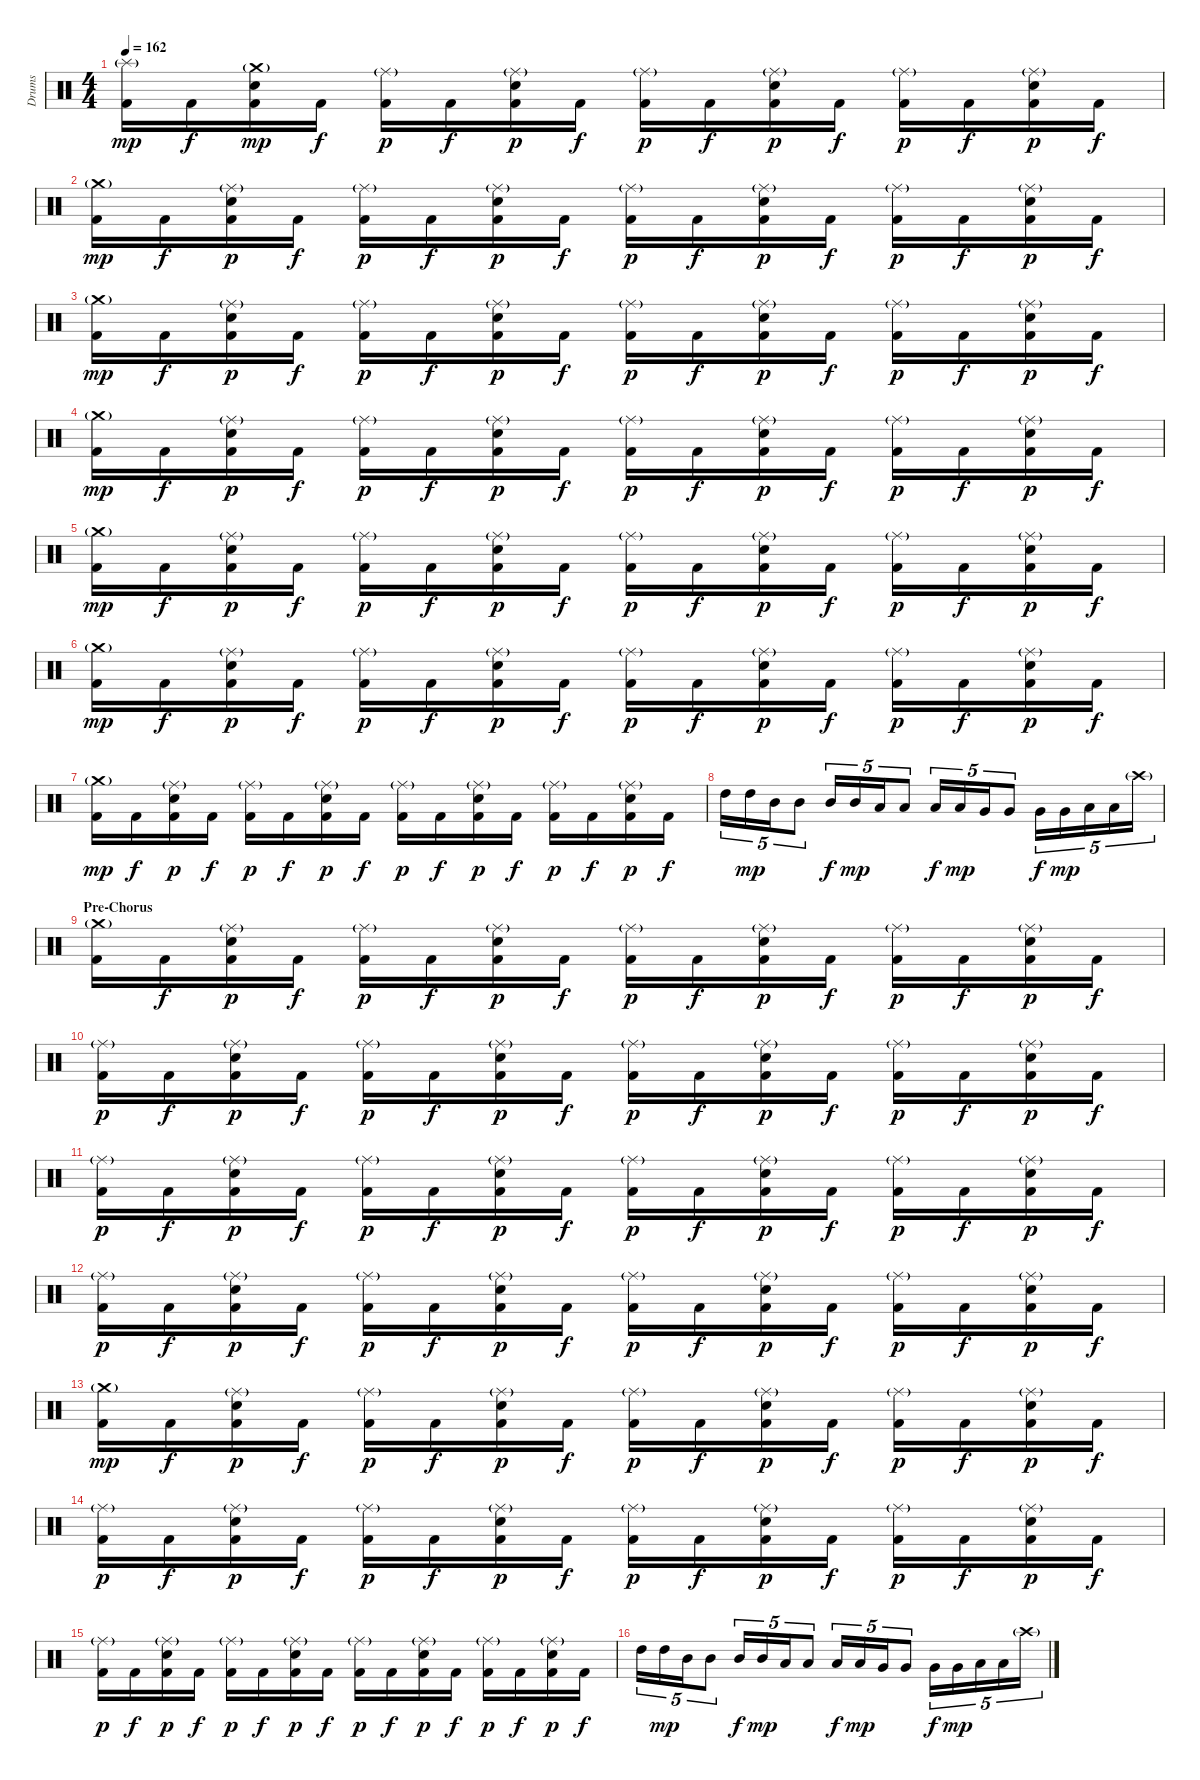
\track ("Drums" "Drums") {instrument percussion}
\staff {score}
\articulation defaults
\ts (4 4)
\tempo 162
\clef neutral
\ks c
("Splash (hit)"{g} "Kick (hit) 2").16{dy mp} "Kick (hit) 2".16{dy f} ("Crash medium (hit)"{g} "Snare (hit) 2" "Kick (hit) 2").16{dy mp} "Kick (hit) 2".16{dy f} ("Ride (middle)"{g} "Kick (hit) 2").16{dy p} "Kick (hit) 2".16{dy f} ("Ride (middle)"{g} "Snare (hit) 2" "Kick (hit) 2").16{dy p} "Kick (hit) 2".16{dy f} ("Ride (middle)"{g} "Kick (hit) 2").16{dy p} "Kick (hit) 2".16{dy f} ("Ride (middle)"{g} "Snare (hit) 2" "Kick (hit) 2").16{dy p} "Kick (hit) 2".16{dy f} ("Ride (middle)"{g} "Kick (hit) 2").16{dy p} "Kick (hit) 2".16{dy f} ("Ride (middle)"{g} "Snare (hit) 2" "Kick (hit) 2").16{dy p} "Kick (hit) 2".16{dy f} |
("Crash medium (hit)"{g} "Kick (hit) 2").16{dy mp} "Kick (hit) 2".16{dy f} ("Ride (middle)"{g} "Snare (hit) 2" "Kick (hit) 2").16{dy p} "Kick (hit) 2".16{dy f} ("Ride (middle)"{g} "Kick (hit) 2").16{dy p} "Kick (hit) 2".16{dy f} ("Ride (middle)"{g} "Snare (hit) 2" "Kick (hit) 2").16{dy p} "Kick (hit) 2".16{dy f} ("Ride (middle)"{g} "Kick (hit) 2").16{dy p} "Kick (hit) 2".16{dy f} ("Ride (middle)"{g} "Snare (hit) 2" "Kick (hit) 2").16{dy p} "Kick (hit) 2".16{dy f} ("Ride (middle)"{g} "Kick (hit) 2").16{dy p} "Kick (hit) 2".16{dy f} ("Ride (middle)"{g} "Snare (hit) 2" "Kick (hit) 2").16{dy p} "Kick (hit) 2".16{dy f} |
("Crash medium (hit)"{g} "Kick (hit) 2").16{dy mp} "Kick (hit) 2".16{dy f} ("Ride (middle)"{g} "Snare (hit) 2" "Kick (hit) 2").16{dy p} "Kick (hit) 2".16{dy f} ("Ride (middle)"{g} "Kick (hit) 2").16{dy p} "Kick (hit) 2".16{dy f} ("Ride (middle)"{g} "Snare (hit) 2" "Kick (hit) 2").16{dy p} "Kick (hit) 2".16{dy f} ("Ride (middle)"{g} "Kick (hit) 2").16{dy p} "Kick (hit) 2".16{dy f} ("Ride (middle)"{g} "Snare (hit) 2" "Kick (hit) 2").16{dy p} "Kick (hit) 2".16{dy f} ("Ride (middle)"{g} "Kick (hit) 2").16{dy p} "Kick (hit) 2".16{dy f} ("Ride (middle)"{g} "Snare (hit) 2" "Kick (hit) 2").16{dy p} "Kick (hit) 2".16{dy f} |
("Crash medium (hit)"{g} "Kick (hit) 2").16{dy mp} "Kick (hit) 2".16{dy f} ("Ride (middle)"{g} "Snare (hit) 2" "Kick (hit) 2").16{dy p} "Kick (hit) 2".16{dy f} ("Ride (middle)"{g} "Kick (hit) 2").16{dy p} "Kick (hit) 2".16{dy f} ("Ride (middle)"{g} "Snare (hit) 2" "Kick (hit) 2").16{dy p} "Kick (hit) 2".16{dy f} ("Ride (middle)"{g} "Kick (hit) 2").16{dy p} "Kick (hit) 2".16{dy f} ("Ride (middle)"{g} "Snare (hit) 2" "Kick (hit) 2").16{dy p} "Kick (hit) 2".16{dy f} ("Ride (middle)"{g} "Kick (hit) 2").16{dy p} "Kick (hit) 2".16{dy f} ("Ride (middle)"{g} "Snare (hit) 2" "Kick (hit) 2").16{dy p} "Kick (hit) 2".16{dy f} |
("Crash medium (hit)"{g} "Kick (hit) 2").16{dy mp} "Kick (hit) 2".16{dy f} ("Ride (middle)"{g} "Snare (hit) 2" "Kick (hit) 2").16{dy p} "Kick (hit) 2".16{dy f} ("Ride (middle)"{g} "Kick (hit) 2").16{dy p} "Kick (hit) 2".16{dy f} ("Ride (middle)"{g} "Snare (hit) 2" "Kick (hit) 2").16{dy p} "Kick (hit) 2".16{dy f} ("Ride (middle)"{g} "Kick (hit) 2").16{dy p} "Kick (hit) 2".16{dy f} ("Ride (middle)"{g} "Snare (hit) 2" "Kick (hit) 2").16{dy p} "Kick (hit) 2".16{dy f} ("Ride (middle)"{g} "Kick (hit) 2").16{dy p} "Kick (hit) 2".16{dy f} ("Ride (middle)"{g} "Snare (hit) 2" "Kick (hit) 2").16{dy p} "Kick (hit) 2".16{dy f} |
("Crash medium (hit)"{g} "Kick (hit) 2").16{dy mp} "Kick (hit) 2".16{dy f} ("Ride (middle)"{g} "Snare (hit) 2" "Kick (hit) 2").16{dy p} "Kick (hit) 2".16{dy f} ("Ride (middle)"{g} "Kick (hit) 2").16{dy p} "Kick (hit) 2".16{dy f} ("Ride (middle)"{g} "Snare (hit) 2" "Kick (hit) 2").16{dy p} "Kick (hit) 2".16{dy f} ("Ride (middle)"{g} "Kick (hit) 2").16{dy p} "Kick (hit) 2".16{dy f} ("Ride (middle)"{g} "Snare (hit) 2" "Kick (hit) 2").16{dy p} "Kick (hit) 2".16{dy f} ("Ride (middle)"{g} "Kick (hit) 2").16{dy p} "Kick (hit) 2".16{dy f} ("Ride (middle)"{g} "Snare (hit) 2" "Kick (hit) 2").16{dy p} "Kick (hit) 2".16{dy f} |
("Crash medium (hit)"{g} "Kick (hit) 2").16{dy mp} "Kick (hit) 2".16{dy f} ("Ride (middle)"{g} "Snare (hit) 2" "Kick (hit) 2").16{dy p} "Kick (hit) 2".16{dy f} ("Ride (middle)"{g} "Kick (hit) 2").16{dy p} "Kick (hit) 2".16{dy f} ("Ride (middle)"{g} "Snare (hit) 2" "Kick (hit) 2").16{dy p} "Kick (hit) 2".16{dy f} ("Ride (middle)"{g} "Kick (hit) 2").16{dy p} "Kick (hit) 2".16{dy f} ("Ride (middle)"{g} "Snare (hit) 2" "Kick (hit) 2").16{dy p} "Kick (hit) 2".16{dy f} ("Ride (middle)"{g} "Kick (hit) 2").16{dy p} "Kick (hit) 2".16{dy f} ("Ride (middle)"{g} "Snare (hit) 2" "Kick (hit) 2").16{dy p} "Kick (hit) 2".16{dy f} |
"High Tom (hit)".16{tu (5 4)} "High Tom (hit)".16{tu (5 4) dy mp} "Mid Tom (hit)".16{tu (5 4)} "Mid Tom (hit)".8{tu (5 4)} "Mid Tom (hit)".16{tu (5 4) dy f} "Mid Tom (hit)".16{tu (5 4) dy mp} "Low Tom (hit)".16{tu (5 4)} "Low Tom (hit)".8{tu (5 4)} "Low Tom (hit)".16{tu (5 4) dy f} "Low Tom (hit)".16{tu (5 4) dy mp} "Very Low Tom (hit)".16{tu (5 4)} "Very Low Tom (hit)".8{tu (5 4)} "Very Low Tom (hit)".16{tu (5 4) dy f} "Very Low Tom (hit)".16{tu (5 4) dy mp} "Low Floor Tom (hit)".16{tu (5 4)} "Low Floor Tom (hit)".16{tu (5 4)} "Crash high (hit)"{g}.16{tu (5 4)} |
\section ("" "Pre-Chorus")
("Crash medium (hit)"{g} "Kick (hit) 2").16 "Kick (hit) 2".16{dy f} ("Ride (middle)"{g} "Snare (hit) 2" "Kick (hit) 2").16{dy p} "Kick (hit) 2".16{dy f} ("Ride (middle)"{g} "Kick (hit) 2").16{dy p} "Kick (hit) 2".16{dy f} ("Ride (middle)"{g} "Snare (hit) 2" "Kick (hit) 2").16{dy p} "Kick (hit) 2".16{dy f} ("Ride (middle)"{g} "Kick (hit) 2").16{dy p} "Kick (hit) 2".16{dy f} ("Ride (middle)"{g} "Snare (hit) 2" "Kick (hit) 2").16{dy p} "Kick (hit) 2".16{dy f} ("Ride (middle)"{g} "Kick (hit) 2").16{dy p} "Kick (hit) 2".16{dy f} ("Ride (middle)"{g} "Snare (hit) 2" "Kick (hit) 2").16{dy p} "Kick (hit) 2".16{dy f} |
("Ride (middle)"{g} "Kick (hit) 2").16{dy p} "Kick (hit) 2".16{dy f} ("Ride (middle)"{g} "Snare (hit) 2" "Kick (hit) 2").16{dy p} "Kick (hit) 2".16{dy f} ("Ride (middle)"{g} "Kick (hit) 2").16{dy p} "Kick (hit) 2".16{dy f} ("Ride (middle)"{g} "Snare (hit) 2" "Kick (hit) 2").16{dy p} "Kick (hit) 2".16{dy f} ("Ride (middle)"{g} "Kick (hit) 2").16{dy p} "Kick (hit) 2".16{dy f} ("Ride (middle)"{g} "Snare (hit) 2" "Kick (hit) 2").16{dy p} "Kick (hit) 2".16{dy f} ("Ride (middle)"{g} "Kick (hit) 2").16{dy p} "Kick (hit) 2".16{dy f} ("Ride (middle)"{g} "Snare (hit) 2" "Kick (hit) 2").16{dy p} "Kick (hit) 2".16{dy f} |
("Ride (middle)"{g} "Kick (hit) 2").16{dy p} "Kick (hit) 2".16{dy f} ("Ride (middle)"{g} "Snare (hit) 2" "Kick (hit) 2").16{dy p} "Kick (hit) 2".16{dy f} ("Ride (middle)"{g} "Kick (hit) 2").16{dy p} "Kick (hit) 2".16{dy f} ("Ride (middle)"{g} "Snare (hit) 2" "Kick (hit) 2").16{dy p} "Kick (hit) 2".16{dy f} ("Ride (middle)"{g} "Kick (hit) 2").16{dy p} "Kick (hit) 2".16{dy f} ("Ride (middle)"{g} "Snare (hit) 2" "Kick (hit) 2").16{dy p} "Kick (hit) 2".16{dy f} ("Ride (middle)"{g} "Kick (hit) 2").16{dy p} "Kick (hit) 2".16{dy f} ("Ride (middle)"{g} "Snare (hit) 2" "Kick (hit) 2").16{dy p} "Kick (hit) 2".16{dy f} |
("Ride (middle)"{g} "Kick (hit) 2").16{dy p} "Kick (hit) 2".16{dy f} ("Ride (middle)"{g} "Snare (hit) 2" "Kick (hit) 2").16{dy p} "Kick (hit) 2".16{dy f} ("Ride (middle)"{g} "Kick (hit) 2").16{dy p} "Kick (hit) 2".16{dy f} ("Ride (middle)"{g} "Snare (hit) 2" "Kick (hit) 2").16{dy p} "Kick (hit) 2".16{dy f} ("Ride (middle)"{g} "Kick (hit) 2").16{dy p} "Kick (hit) 2".16{dy f} ("Ride (middle)"{g} "Snare (hit) 2" "Kick (hit) 2").16{dy p} "Kick (hit) 2".16{dy f} ("Ride (middle)"{g} "Kick (hit) 2").16{dy p} "Kick (hit) 2".16{dy f} ("Ride (middle)"{g} "Snare (hit) 2" "Kick (hit) 2").16{dy p} "Kick (hit) 2".16{dy f} |
("Crash medium (hit)"{g} "Kick (hit) 2").16{dy mp} "Kick (hit) 2".16{dy f} ("Ride (middle)"{g} "Snare (hit) 2" "Kick (hit) 2").16{dy p} "Kick (hit) 2".16{dy f} ("Ride (middle)"{g} "Kick (hit) 2").16{dy p} "Kick (hit) 2".16{dy f} ("Ride (middle)"{g} "Snare (hit) 2" "Kick (hit) 2").16{dy p} "Kick (hit) 2".16{dy f} ("Ride (middle)"{g} "Kick (hit) 2").16{dy p} "Kick (hit) 2".16{dy f} ("Ride (middle)"{g} "Snare (hit) 2" "Kick (hit) 2").16{dy p} "Kick (hit) 2".16{dy f} ("Ride (middle)"{g} "Kick (hit) 2").16{dy p} "Kick (hit) 2".16{dy f} ("Ride (middle)"{g} "Snare (hit) 2" "Kick (hit) 2").16{dy p} "Kick (hit) 2".16{dy f} |
("Ride (middle)"{g} "Kick (hit) 2").16{dy p} "Kick (hit) 2".16{dy f} ("Ride (middle)"{g} "Snare (hit) 2" "Kick (hit) 2").16{dy p} "Kick (hit) 2".16{dy f} ("Ride (middle)"{g} "Kick (hit) 2").16{dy p} "Kick (hit) 2".16{dy f} ("Ride (middle)"{g} "Snare (hit) 2" "Kick (hit) 2").16{dy p} "Kick (hit) 2".16{dy f} ("Ride (middle)"{g} "Kick (hit) 2").16{dy p} "Kick (hit) 2".16{dy f} ("Ride (middle)"{g} "Snare (hit) 2" "Kick (hit) 2").16{dy p} "Kick (hit) 2".16{dy f} ("Ride (middle)"{g} "Kick (hit) 2").16{dy p} "Kick (hit) 2".16{dy f} ("Ride (middle)"{g} "Snare (hit) 2" "Kick (hit) 2").16{dy p} "Kick (hit) 2".16{dy f} |
("Ride (middle)"{g} "Kick (hit) 2").16{dy p} "Kick (hit) 2".16{dy f} ("Ride (middle)"{g} "Snare (hit) 2" "Kick (hit) 2").16{dy p} "Kick (hit) 2".16{dy f} ("Ride (middle)"{g} "Kick (hit) 2").16{dy p} "Kick (hit) 2".16{dy f} ("Ride (middle)"{g} "Snare (hit) 2" "Kick (hit) 2").16{dy p} "Kick (hit) 2".16{dy f} ("Ride (middle)"{g} "Kick (hit) 2").16{dy p} "Kick (hit) 2".16{dy f} ("Ride (middle)"{g} "Snare (hit) 2" "Kick (hit) 2").16{dy p} "Kick (hit) 2".16{dy f} ("Ride (middle)"{g} "Kick (hit) 2").16{dy p} "Kick (hit) 2".16{dy f} ("Ride (middle)"{g} "Snare (hit) 2" "Kick (hit) 2").16{dy p} "Kick (hit) 2".16{dy f} |
"High Tom (hit)".16{tu (5 4)} "High Tom (hit)".16{tu (5 4) dy mp} "Mid Tom (hit)".16{tu (5 4)} "Mid Tom (hit)".8{tu (5 4)} "Mid Tom (hit)".16{tu (5 4) dy f} "Mid Tom (hit)".16{tu (5 4) dy mp} "Low Tom (hit)".16{tu (5 4)} "Low Tom (hit)".8{tu (5 4)} "Low Tom (hit)".16{tu (5 4) dy f} "Low Tom (hit)".16{tu (5 4) dy mp} "Very Low Tom (hit)".16{tu (5 4)} "Very Low Tom (hit)".8{tu (5 4)} "Very Low Tom (hit)".16{tu (5 4) dy f} "Very Low Tom (hit)".16{tu (5 4) dy mp} "Low Floor Tom (hit)".16{tu (5 4)} "Low Floor Tom (hit)".16{tu (5 4)} "Crash high (hit)"{g}.16{tu (5 4)}
